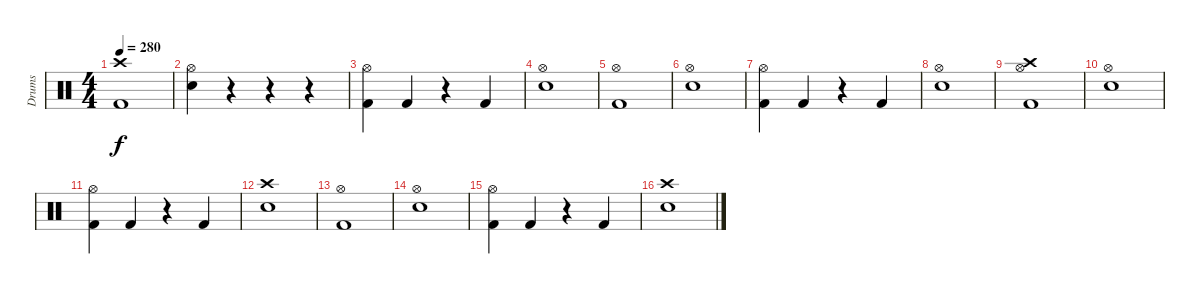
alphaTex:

\track ("Drums" "Drums") {instrument percussion}
\staff {score}
\articulation defaults
\ts (4 4)
\tempo 280
\clef neutral
\ks c
("Crash high (hit)" "Kick (hit) 2").1{dy f} |
("Hi-Hat (open)" "Electric Snare (hit)").4 r.4 r.4 r.4 |
("Hi-Hat (open)" "Kick (hit) 2").4 "Kick (hit) 2".4 r.4 "Kick (hit) 2".4 |
("Hi-Hat (open)" "Electric Snare (hit)").1 |
("Hi-Hat (open)" "Kick (hit) 2").1 |
("Hi-Hat (open)" "Electric Snare (hit)").1 |
("Hi-Hat (open)" "Kick (hit) 2").4 "Kick (hit) 2".4 r.4 "Kick (hit) 2".4 |
("Hi-Hat (open)" "Electric Snare (hit)").1 |
("Hi-Hat (open)" "Crash high (hit)" "Kick (hit) 2").1 |
("Hi-Hat (open)" "Electric Snare (hit)").1 |
("Hi-Hat (open)" "Kick (hit) 2").4 "Kick (hit) 2".4 r.4 "Kick (hit) 2".4 |
("Crash high (hit)" "Electric Snare (hit)").1 |
("Hi-Hat (open)" "Kick (hit) 2").1 |
("Hi-Hat (open)" "Electric Snare (hit)").1 |
("Hi-Hat (open)" "Kick (hit) 2").4 "Kick (hit) 2".4 r.4 "Kick (hit) 2".4 |
("Crash high (hit)" "Electric Snare (hit)").1
